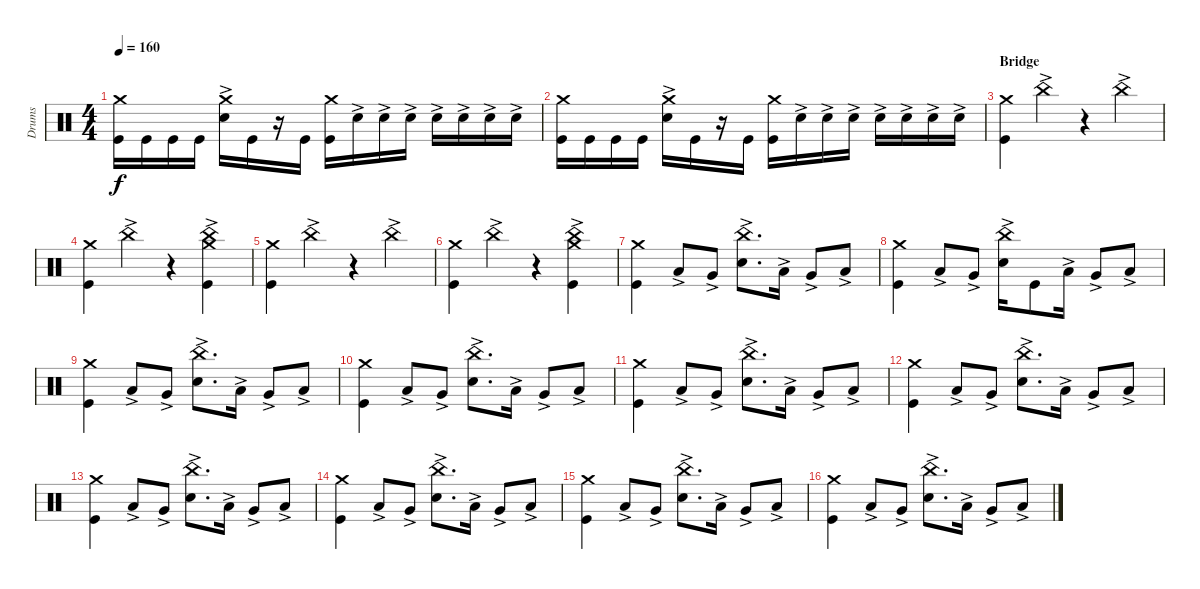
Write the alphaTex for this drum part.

\track ("Drums" "Drums") {instrument percussion}
\staff {score}
\articulation defaults
\ts (4 4)
\tempo 160
\clef neutral
\ks c
("Crash medium (hit)" "Kick (hit)").16{dy f} "Kick (hit)".16 "Kick (hit)".16 "Kick (hit)".16 ("Crash medium (hit)" "Snare (hit) 2"{ac}).16 "Kick (hit)".16 r.16 "Kick (hit)".16 ("Kick (hit)" "Crash medium (hit)").16 "Snare (hit) 2"{ac}.16 "Snare (hit) 2"{ac}.16 "Snare (hit) 2"{ac}.16 "Snare (hit) 2"{ac}.16 "Snare (hit) 2"{ac}.16 "Snare (hit) 2"{ac}.16 "Snare (hit) 2"{ac}.16 |
("Crash medium (hit)" "Kick (hit)").16 "Kick (hit)".16 "Kick (hit)".16 "Kick (hit)".16 ("Crash medium (hit)" "Snare (hit) 2"{ac}).16 "Kick (hit)".16 r.16 "Kick (hit)".16 ("Kick (hit)" "Crash medium (hit)").16 "Snare (hit) 2"{ac}.16 "Snare (hit) 2"{ac}.16 "Snare (hit) 2"{ac}.16 "Snare (hit) 2"{ac}.16 "Snare (hit) 2"{ac}.16 "Snare (hit) 2"{ac}.16 "Snare (hit) 2"{ac}.16 |
\section ("" "Bridge")
("Kick (hit)" "Crash medium (hit)").4 "China (hit)"{ac}.4 r.4 "China (hit)"{ac}.4 |
("Crash medium (hit)" "Kick (hit)").4 "China (hit)"{ac}.4 r.4 ("China (hit)"{ac} "Kick (hit)" "Crash medium (hit)").4 |
("Crash medium (hit)" "Kick (hit)").4 "China (hit)"{ac}.4 r.4 "China (hit)"{ac}.4 |
("Crash medium (hit)" "Kick (hit)").4 "China (hit)"{ac}.4 r.4 ("China (hit)"{ac} "Kick (hit)" "Crash medium (hit)").4 |
("Kick (hit)" "Crash medium (hit)").4 "Low Tom (hit)"{ac}.8 "Very Low Tom (hit)"{ac}.8 ("Snare (hit) 2"{ac} "China (hit)"{ac}).8{d} "Low Tom (hit)"{ac}.16 "Very Low Tom (hit)"{ac}.8 "Low Floor Tom (hit)"{ac}.8 |
("Kick (hit)" "Crash medium (hit)").4 "Low Tom (hit)"{ac}.8 "Very Low Tom (hit)"{ac}.8 ("Snare (hit) 2"{ac} "China (hit)"{ac}).16 "Kick (hit)".8 "Low Tom (hit)"{ac}.16 "Very Low Tom (hit)"{ac}.8 "Low Floor Tom (hit)"{ac}.8 |
("Kick (hit)" "Crash medium (hit)").4 "Low Tom (hit)"{ac}.8 "Very Low Tom (hit)"{ac}.8 ("Snare (hit) 2"{ac} "China (hit)"{ac}).8{d} "Low Tom (hit)"{ac}.16 "Very Low Tom (hit)"{ac}.8 "Low Floor Tom (hit)"{ac}.8 |
("Kick (hit)" "Crash medium (hit)").4 "Low Tom (hit)"{ac}.8 "Very Low Tom (hit)"{ac}.8 ("Snare (hit) 2"{ac} "China (hit)"{ac}).8{d} "Low Tom (hit)"{ac}.16 "Very Low Tom (hit)"{ac}.8 "Low Floor Tom (hit)"{ac}.8 |
("Kick (hit)" "Crash medium (hit)").4 "Low Tom (hit)"{ac}.8 "Very Low Tom (hit)"{ac}.8 ("Snare (hit) 2"{ac} "China (hit)"{ac}).8{d} "Low Tom (hit)"{ac}.16 "Very Low Tom (hit)"{ac}.8 "Low Floor Tom (hit)"{ac}.8 |
("Kick (hit)" "Crash medium (hit)").4 "Low Tom (hit)"{ac}.8 "Very Low Tom (hit)"{ac}.8 ("Snare (hit) 2"{ac} "China (hit)"{ac}).8{d} "Low Tom (hit)"{ac}.16 "Very Low Tom (hit)"{ac}.8 "Low Floor Tom (hit)"{ac}.8 |
("Kick (hit)" "Crash medium (hit)").4 "Low Tom (hit)"{ac}.8 "Very Low Tom (hit)"{ac}.8 ("Snare (hit) 2"{ac} "China (hit)"{ac}).8{d} "Low Tom (hit)"{ac}.16 "Very Low Tom (hit)"{ac}.8 "Low Floor Tom (hit)"{ac}.8 |
("Kick (hit)" "Crash medium (hit)").4 "Low Tom (hit)"{ac}.8 "Very Low Tom (hit)"{ac}.8 ("Snare (hit) 2"{ac} "China (hit)"{ac}).8{d} "Low Tom (hit)"{ac}.16 "Very Low Tom (hit)"{ac}.8 "Low Floor Tom (hit)"{ac}.8 |
("Kick (hit)" "Crash medium (hit)").4 "Low Tom (hit)"{ac}.8 "Very Low Tom (hit)"{ac}.8 ("Snare (hit) 2"{ac} "China (hit)"{ac}).8{d} "Low Tom (hit)"{ac}.16 "Very Low Tom (hit)"{ac}.8 "Low Floor Tom (hit)"{ac}.8 |
("Kick (hit)" "Crash medium (hit)").4 "Low Tom (hit)"{ac}.8 "Very Low Tom (hit)"{ac}.8 ("Snare (hit) 2"{ac} "China (hit)"{ac}).8{d} "Low Tom (hit)"{ac}.16 "Very Low Tom (hit)"{ac}.8 "Low Floor Tom (hit)"{ac}.8
